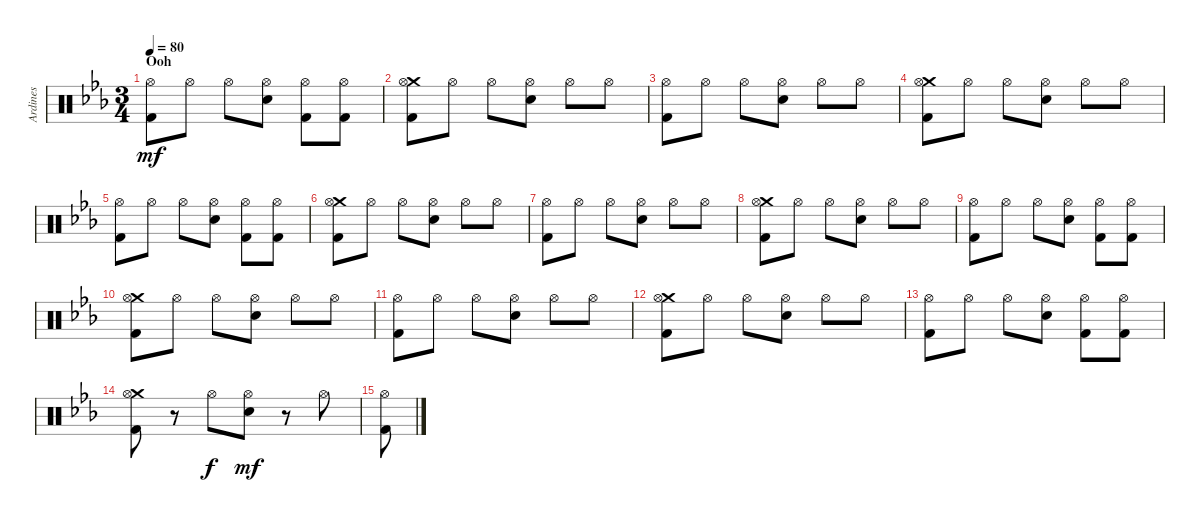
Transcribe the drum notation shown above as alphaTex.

\track ("Ardines" "Ardines") {instrument percussion}
\staff {score}
\articulation defaults
\ts (3 4)
\section ("" "Ooh")
\tempo 80
\clef neutral
\ks eb
("Kick (hit) 2" "Hi-Hat (open)").8{dy mf} "Hi-Hat (open)".8 "Hi-Hat (open)".8 ("Snare (hit) 2" "Hi-Hat (open)").8 ("Kick (hit) 2" "Hi-Hat (open)").8 ("Kick (hit) 2" "Hi-Hat (open)").8 |
("Kick (hit) 2" "Crash medium (hit)" "Hi-Hat (open)").8 "Hi-Hat (open)".8 "Hi-Hat (open)".8 ("Snare (hit) 2" "Hi-Hat (open)").8 "Hi-Hat (open)".8 "Hi-Hat (open)".8 |
("Kick (hit) 2" "Hi-Hat (open)").8 "Hi-Hat (open)".8 "Hi-Hat (open)".8 ("Snare (hit) 2" "Hi-Hat (open)").8 "Hi-Hat (open)".8 "Hi-Hat (open)".8 |
("Kick (hit) 2" "Crash medium (hit)" "Hi-Hat (open)").8 "Hi-Hat (open)".8 "Hi-Hat (open)".8 ("Snare (hit) 2" "Hi-Hat (open)").8 "Hi-Hat (open)".8 "Hi-Hat (open)".8 |
("Kick (hit) 2" "Hi-Hat (open)").8 "Hi-Hat (open)".8 "Hi-Hat (open)".8 ("Snare (hit) 2" "Hi-Hat (open)").8 ("Kick (hit) 2" "Hi-Hat (open)").8 ("Kick (hit) 2" "Hi-Hat (open)").8 |
("Kick (hit) 2" "Crash medium (hit)" "Hi-Hat (open)").8 "Hi-Hat (open)".8 "Hi-Hat (open)".8 ("Snare (hit) 2" "Hi-Hat (open)").8 "Hi-Hat (open)".8 "Hi-Hat (open)".8 |
("Kick (hit) 2" "Hi-Hat (open)").8 "Hi-Hat (open)".8 "Hi-Hat (open)".8 ("Snare (hit) 2" "Hi-Hat (open)").8 "Hi-Hat (open)".8 "Hi-Hat (open)".8 |
("Kick (hit) 2" "Crash medium (hit)" "Hi-Hat (open)").8 "Hi-Hat (open)".8 "Hi-Hat (open)".8 ("Snare (hit) 2" "Hi-Hat (open)").8 "Hi-Hat (open)".8 "Hi-Hat (open)".8 |
("Kick (hit) 2" "Hi-Hat (open)").8 "Hi-Hat (open)".8 "Hi-Hat (open)".8 ("Snare (hit) 2" "Hi-Hat (open)").8 ("Kick (hit) 2" "Hi-Hat (open)").8 ("Kick (hit) 2" "Hi-Hat (open)").8 |
("Kick (hit) 2" "Crash medium (hit)" "Hi-Hat (open)").8 "Hi-Hat (open)".8 "Hi-Hat (open)".8 ("Snare (hit) 2" "Hi-Hat (open)").8 "Hi-Hat (open)".8 "Hi-Hat (open)".8 |
("Kick (hit) 2" "Hi-Hat (open)").8 "Hi-Hat (open)".8 "Hi-Hat (open)".8 ("Snare (hit) 2" "Hi-Hat (open)").8 "Hi-Hat (open)".8 "Hi-Hat (open)".8 |
("Kick (hit) 2" "Crash medium (hit)" "Hi-Hat (open)").8 "Hi-Hat (open)".8 "Hi-Hat (open)".8 ("Snare (hit) 2" "Hi-Hat (open)").8 "Hi-Hat (open)".8 "Hi-Hat (open)".8 |
("Kick (hit) 2" "Hi-Hat (open)").8 "Hi-Hat (open)".8 "Hi-Hat (open)".8 ("Snare (hit) 2" "Hi-Hat (open)").8 ("Kick (hit) 2" "Hi-Hat (open)").8 ("Kick (hit) 2" "Hi-Hat (open)").8 |
("Kick (hit) 2" "Crash medium (hit)" "Hi-Hat (open)").8 r.8 "Hi-Hat (open)".8{dy f} ("Snare (hit) 2" "Hi-Hat (open)").8{dy mf} r.8 "Hi-Hat (open)".8 |
("Kick (hit) 2" "Hi-Hat (open)").8
